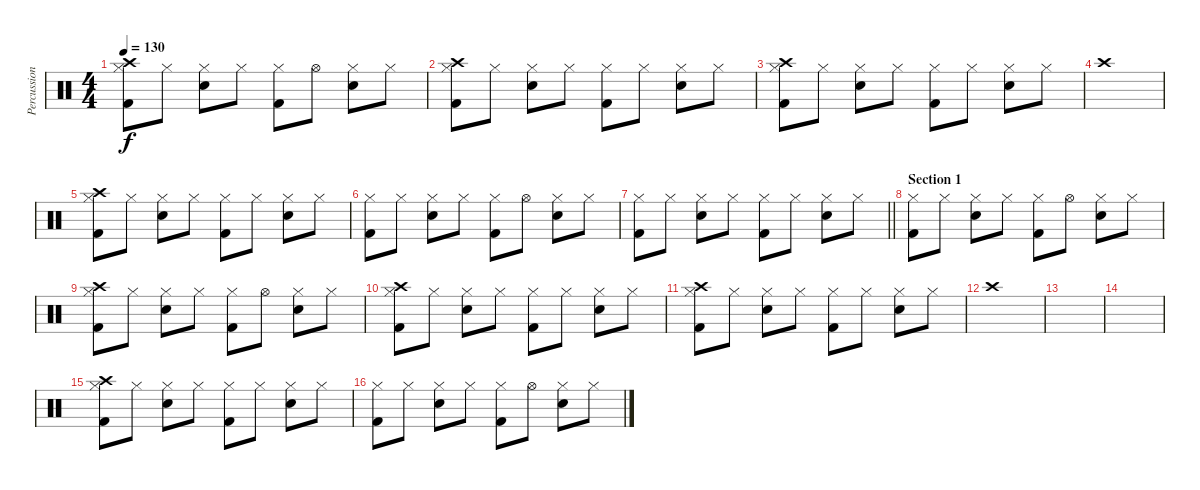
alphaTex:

\track ("Percussion" "Percussion") {instrument percussion}
\staff {score}
\articulation defaults
\ts (4 4)
\tempo 130
\clef neutral
\ks c
("Crash high (hit)" "Hi-Hat (closed)" "Kick (hit) 2").8{dy f} "Hi-Hat (closed)".8 ("Hi-Hat (closed)" "Electric Snare (hit)").8 "Hi-Hat (closed)".8 ("Hi-Hat (closed)" "Kick (hit) 2").8 "Hi-Hat (open)".8 ("Hi-Hat (closed)" "Electric Snare (hit)").8 "Hi-Hat (closed)".8 |
("Crash high (hit)" "Hi-Hat (closed)" "Kick (hit) 2").8 "Hi-Hat (closed)".8 ("Hi-Hat (closed)" "Electric Snare (hit)").8 "Hi-Hat (closed)".8 ("Hi-Hat (closed)" "Kick (hit) 2").8 "Hi-Hat (closed)".8 ("Hi-Hat (closed)" "Electric Snare (hit)").8 "Hi-Hat (closed)".8 |
("Crash high (hit)" "Hi-Hat (closed)" "Kick (hit) 2").8 "Hi-Hat (closed)".8 ("Hi-Hat (closed)" "Electric Snare (hit)").8 "Hi-Hat (closed)".8 ("Hi-Hat (closed)" "Kick (hit) 2").8 "Hi-Hat (closed)".8 ("Hi-Hat (closed)" "Electric Snare (hit)").8 "Hi-Hat (closed)".8 |
"Crash high (hit)".1 |
("Crash high (hit)" "Hi-Hat (closed)" "Kick (hit) 2").8 "Hi-Hat (closed)".8 ("Hi-Hat (closed)" "Electric Snare (hit)").8 "Hi-Hat (closed)".8 ("Hi-Hat (closed)" "Kick (hit) 2").8 "Hi-Hat (closed)".8 ("Hi-Hat (closed)" "Electric Snare (hit)").8 "Hi-Hat (closed)".8 |
("Hi-Hat (closed)" "Kick (hit) 2").8 "Hi-Hat (closed)".8 ("Hi-Hat (closed)" "Electric Snare (hit)").8 "Hi-Hat (closed)".8 ("Hi-Hat (closed)" "Kick (hit) 2").8 "Hi-Hat (open)".8 ("Hi-Hat (closed)" "Electric Snare (hit)").8 "Hi-Hat (closed)".8 |
\barLineRight lightlight
("Hi-Hat (closed)" "Kick (hit) 2").8 "Hi-Hat (closed)".8 ("Hi-Hat (closed)" "Electric Snare (hit)").8 "Hi-Hat (closed)".8 ("Hi-Hat (closed)" "Kick (hit) 2").8 "Hi-Hat (closed)".8 ("Hi-Hat (closed)" "Electric Snare (hit)").8 "Hi-Hat (closed)".8 |
\section ("" "Section 1")
("Hi-Hat (closed)" "Kick (hit) 2").8 "Hi-Hat (closed)".8 ("Hi-Hat (closed)" "Electric Snare (hit)").8 "Hi-Hat (closed)".8 ("Hi-Hat (closed)" "Kick (hit) 2").8 "Hi-Hat (open)".8 ("Hi-Hat (closed)" "Electric Snare (hit)").8 "Hi-Hat (closed)".8 |
("Crash high (hit)" "Hi-Hat (closed)" "Kick (hit) 2").8 "Hi-Hat (closed)".8 ("Hi-Hat (closed)" "Electric Snare (hit)").8 "Hi-Hat (closed)".8 ("Hi-Hat (closed)" "Kick (hit) 2").8 "Hi-Hat (open)".8 ("Hi-Hat (closed)" "Electric Snare (hit)").8 "Hi-Hat (closed)".8 |
("Crash high (hit)" "Hi-Hat (closed)" "Kick (hit) 2").8 "Hi-Hat (closed)".8 ("Hi-Hat (closed)" "Electric Snare (hit)").8 "Hi-Hat (closed)".8 ("Hi-Hat (closed)" "Kick (hit) 2").8 "Hi-Hat (closed)".8 ("Hi-Hat (closed)" "Electric Snare (hit)").8 "Hi-Hat (closed)".8 |
("Crash high (hit)" "Hi-Hat (closed)" "Kick (hit) 2").8 "Hi-Hat (closed)".8 ("Hi-Hat (closed)" "Electric Snare (hit)").8 "Hi-Hat (closed)".8 ("Hi-Hat (closed)" "Kick (hit) 2").8 "Hi-Hat (closed)".8 ("Hi-Hat (closed)" "Electric Snare (hit)").8 "Hi-Hat (closed)".8 |
"Crash high (hit)".1 |
|
|
("Crash high (hit)" "Hi-Hat (closed)" "Kick (hit) 2").8 "Hi-Hat (closed)".8 ("Hi-Hat (closed)" "Electric Snare (hit)").8 "Hi-Hat (closed)".8 ("Hi-Hat (closed)" "Kick (hit) 2").8 "Hi-Hat (closed)".8 ("Hi-Hat (closed)" "Electric Snare (hit)").8 "Hi-Hat (closed)".8 |
("Hi-Hat (closed)" "Kick (hit) 2").8 "Hi-Hat (closed)".8 ("Hi-Hat (closed)" "Electric Snare (hit)").8 "Hi-Hat (closed)".8 ("Hi-Hat (closed)" "Kick (hit) 2").8 "Hi-Hat (open)".8 ("Hi-Hat (closed)" "Electric Snare (hit)").8 "Hi-Hat (closed)".8
